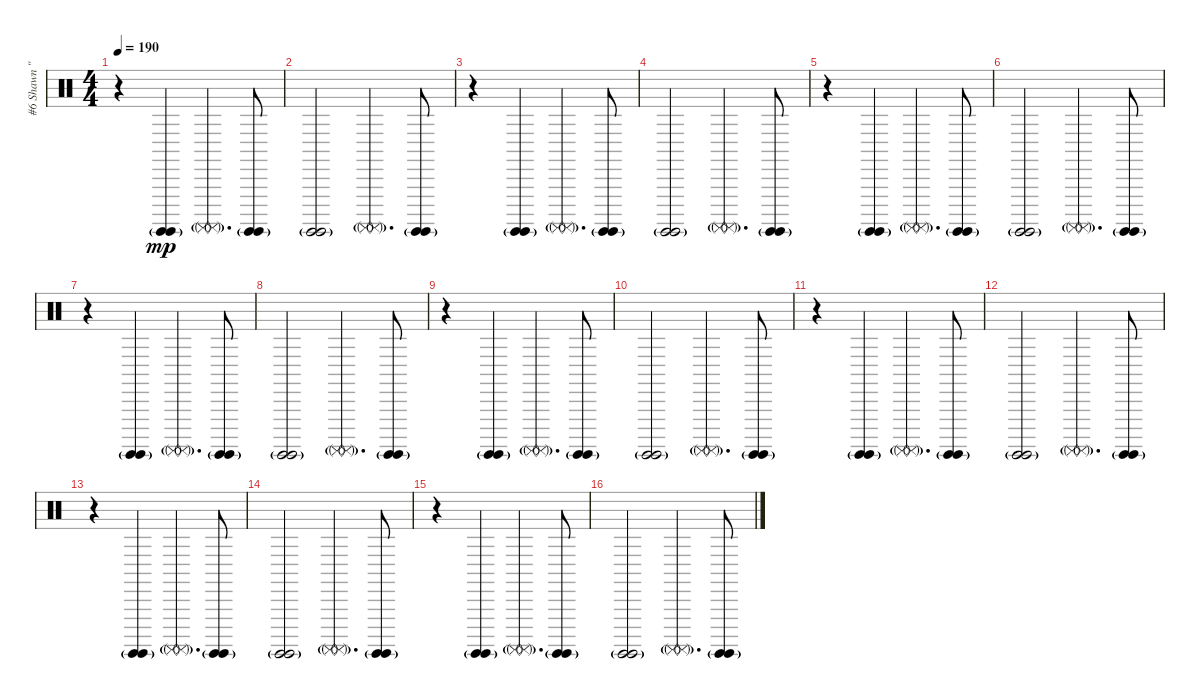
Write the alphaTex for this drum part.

\track ("#6 Shawn \"Clown\" Crahan" "#6 Shawn \"") {instrument percussion}
\staff {score}
\articulation defaults
\ts (4 4)
\tempo 190
\clef neutral
\ks c
r.4{dy mp} ("Surdo (hit)"{g} "Surdo (hit)"{g}).4 ("Surdo (mute)"{g} "Surdo (mute)"{g}).4{d} ("Surdo (hit)"{g} "Surdo (hit)"{g}).8 |
("Surdo (hit)"{g} "Surdo (hit)"{g}).2 ("Surdo (mute)"{g} "Surdo (mute)"{g}).4{d} ("Surdo (hit)"{g} "Surdo (hit)"{g}).8 |
r.4 ("Surdo (hit)"{g} "Surdo (hit)"{g}).4 ("Surdo (mute)"{g} "Surdo (mute)"{g}).4{d} ("Surdo (hit)"{g} "Surdo (hit)"{g}).8 |
("Surdo (hit)"{g} "Surdo (hit)"{g}).2 ("Surdo (mute)"{g} "Surdo (mute)"{g}).4{d} ("Surdo (hit)"{g} "Surdo (hit)"{g}).8 |
r.4 ("Surdo (hit)"{g} "Surdo (hit)"{g}).4 ("Surdo (mute)"{g} "Surdo (mute)"{g}).4{d} ("Surdo (hit)"{g} "Surdo (hit)"{g}).8 |
("Surdo (hit)"{g} "Surdo (hit)"{g}).2 ("Surdo (mute)"{g} "Surdo (mute)"{g}).4{d} ("Surdo (hit)"{g} "Surdo (hit)"{g}).8 |
r.4 ("Surdo (hit)"{g} "Surdo (hit)"{g}).4 ("Surdo (mute)"{g} "Surdo (mute)"{g}).4{d} ("Surdo (hit)"{g} "Surdo (hit)"{g}).8 |
("Surdo (hit)"{g} "Surdo (hit)"{g}).2 ("Surdo (mute)"{g} "Surdo (mute)"{g}).4{d} ("Surdo (hit)"{g} "Surdo (hit)"{g}).8 |
r.4 ("Surdo (hit)"{g} "Surdo (hit)"{g}).4 ("Surdo (mute)"{g} "Surdo (mute)"{g}).4{d} ("Surdo (hit)"{g} "Surdo (hit)"{g}).8 |
("Surdo (hit)"{g} "Surdo (hit)"{g}).2 ("Surdo (mute)"{g} "Surdo (mute)"{g}).4{d} ("Surdo (hit)"{g} "Surdo (hit)"{g}).8 |
r.4 ("Surdo (hit)"{g} "Surdo (hit)"{g}).4 ("Surdo (mute)"{g} "Surdo (mute)"{g}).4{d} ("Surdo (hit)"{g} "Surdo (hit)"{g}).8 |
("Surdo (hit)"{g} "Surdo (hit)"{g}).2 ("Surdo (mute)"{g} "Surdo (mute)"{g}).4{d} ("Surdo (hit)"{g} "Surdo (hit)"{g}).8 |
r.4 ("Surdo (hit)"{g} "Surdo (hit)"{g}).4 ("Surdo (mute)"{g} "Surdo (mute)"{g}).4{d} ("Surdo (hit)"{g} "Surdo (hit)"{g}).8 |
("Surdo (hit)"{g} "Surdo (hit)"{g}).2 ("Surdo (mute)"{g} "Surdo (mute)"{g}).4{d} ("Surdo (hit)"{g} "Surdo (hit)"{g}).8 |
r.4 ("Surdo (hit)"{g} "Surdo (hit)"{g}).4 ("Surdo (mute)"{g} "Surdo (mute)"{g}).4{d} ("Surdo (hit)"{g} "Surdo (hit)"{g}).8 |
("Surdo (hit)"{g} "Surdo (hit)"{g}).2 ("Surdo (mute)"{g} "Surdo (mute)"{g}).4{d} ("Surdo (hit)"{g} "Surdo (hit)"{g}).8
